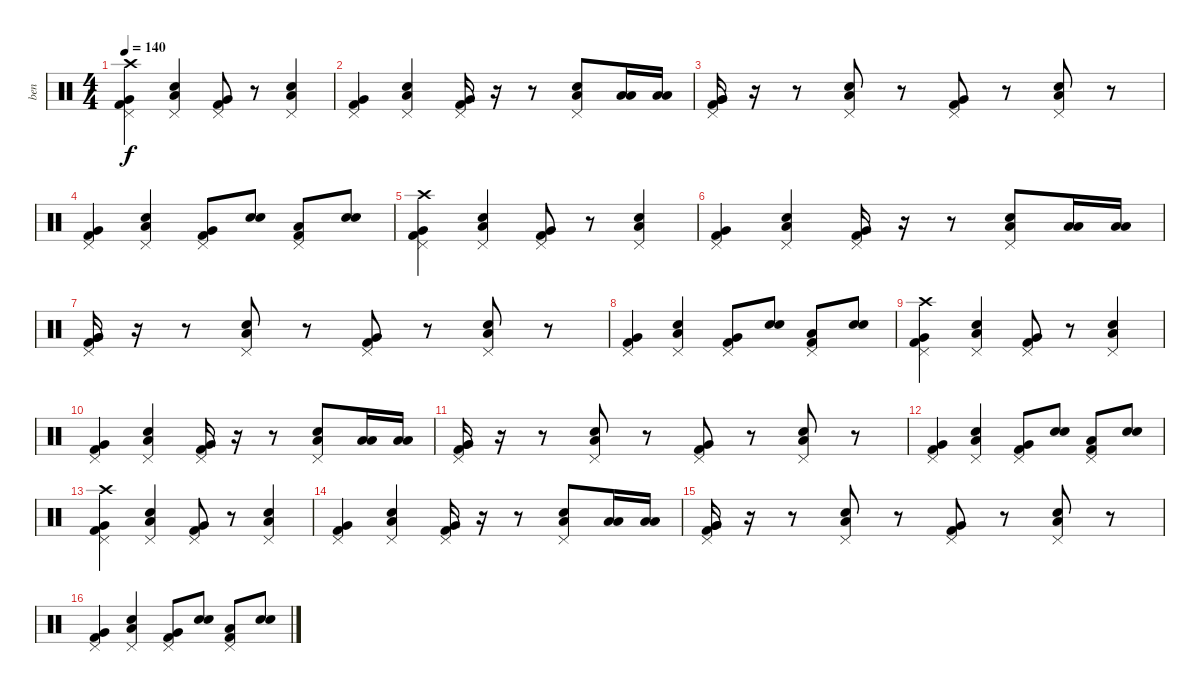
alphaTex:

\track ("ben" "ben") {instrument percussion}
\staff {score}
\articulation defaults
\ts (4 4)
\tempo 140
\clef neutral
\ks c
("Kick (hit) 2" "Very Low Tom (hit)" "Pedal Hi-Hat (hit)" "Crash high (hit)").4{dy f} ("Electric Snare (hit)" "Low Tom (hit)" "Pedal Hi-Hat (hit)").4 ("Kick (hit) 2" "Very Low Tom (hit)" "Pedal Hi-Hat (hit)").8 r.8 ("Electric Snare (hit)" "Low Tom (hit)" "Pedal Hi-Hat (hit)").4 |
("Kick (hit) 2" "Very Low Tom (hit)" "Pedal Hi-Hat (hit)").4 ("Electric Snare (hit)" "Low Tom (hit)" "Pedal Hi-Hat (hit)").4 ("Pedal Hi-Hat (hit)" "Very Low Tom (hit)" "Kick (hit) 2").16 r.16 r.8 ("Pedal Hi-Hat (hit)" "Low Tom (hit)" "Electric Snare (hit)").8 ("Low Tom (hit)" "Low Tom (hit)").16 ("Low Tom (hit)" "Low Tom (hit)").16 |
("Very Low Tom (hit)" "Very Low Tom (hit)" "Pedal Hi-Hat (hit)" "Kick (hit) 2").16 r.16 r.8 ("Electric Snare (hit)" "Low Tom (hit)" "Pedal Hi-Hat (hit)").8 r.8 ("Kick (hit) 2" "Very Low Tom (hit)" "Pedal Hi-Hat (hit)").8 r.8 ("Electric Snare (hit)" "Low Tom (hit)" "Pedal Hi-Hat (hit)").8 r.8 |
("Kick (hit) 2" "Very Low Tom (hit)" "Pedal Hi-Hat (hit)").4 ("Electric Snare (hit)" "Low Tom (hit)" "Pedal Hi-Hat (hit)").4 ("Kick (hit) 2" "Very Low Tom (hit)" "Pedal Hi-Hat (hit)").8 ("Electric Snare (hit)" "Electric Snare (hit)").8 ("Kick (hit) 2" "Low Tom (hit)" "Pedal Hi-Hat (hit)").8 ("Electric Snare (hit)" "Electric Snare (hit)").8 |
("Kick (hit) 2" "Very Low Tom (hit)" "Pedal Hi-Hat (hit)" "Crash high (hit)").4 ("Electric Snare (hit)" "Low Tom (hit)" "Pedal Hi-Hat (hit)").4 ("Kick (hit) 2" "Very Low Tom (hit)" "Pedal Hi-Hat (hit)").8 r.8 ("Electric Snare (hit)" "Low Tom (hit)" "Pedal Hi-Hat (hit)").4 |
("Kick (hit) 2" "Very Low Tom (hit)" "Pedal Hi-Hat (hit)").4 ("Electric Snare (hit)" "Low Tom (hit)" "Pedal Hi-Hat (hit)").4 ("Pedal Hi-Hat (hit)" "Very Low Tom (hit)" "Kick (hit) 2").16 r.16 r.8 ("Pedal Hi-Hat (hit)" "Low Tom (hit)" "Electric Snare (hit)").8 ("Low Tom (hit)" "Low Tom (hit)").16 ("Low Tom (hit)" "Low Tom (hit)").16 |
("Very Low Tom (hit)" "Very Low Tom (hit)" "Pedal Hi-Hat (hit)" "Kick (hit) 2").16 r.16 r.8 ("Electric Snare (hit)" "Low Tom (hit)" "Pedal Hi-Hat (hit)").8 r.8 ("Kick (hit) 2" "Very Low Tom (hit)" "Pedal Hi-Hat (hit)").8 r.8 ("Electric Snare (hit)" "Low Tom (hit)" "Pedal Hi-Hat (hit)").8 r.8 |
("Kick (hit) 2" "Very Low Tom (hit)" "Pedal Hi-Hat (hit)").4 ("Electric Snare (hit)" "Low Tom (hit)" "Pedal Hi-Hat (hit)").4 ("Kick (hit) 2" "Very Low Tom (hit)" "Pedal Hi-Hat (hit)").8 ("Electric Snare (hit)" "Electric Snare (hit)").8 ("Kick (hit) 2" "Low Tom (hit)" "Pedal Hi-Hat (hit)").8 ("Electric Snare (hit)" "Electric Snare (hit)").8 |
("Kick (hit) 2" "Very Low Tom (hit)" "Pedal Hi-Hat (hit)" "Crash high (hit)").4 ("Electric Snare (hit)" "Low Tom (hit)" "Pedal Hi-Hat (hit)").4 ("Kick (hit) 2" "Very Low Tom (hit)" "Pedal Hi-Hat (hit)").8 r.8 ("Electric Snare (hit)" "Low Tom (hit)" "Pedal Hi-Hat (hit)").4 |
("Kick (hit) 2" "Very Low Tom (hit)" "Pedal Hi-Hat (hit)").4 ("Electric Snare (hit)" "Low Tom (hit)" "Pedal Hi-Hat (hit)").4 ("Pedal Hi-Hat (hit)" "Very Low Tom (hit)" "Kick (hit) 2").16 r.16 r.8 ("Pedal Hi-Hat (hit)" "Low Tom (hit)" "Electric Snare (hit)").8 ("Low Tom (hit)" "Low Tom (hit)").16 ("Low Tom (hit)" "Low Tom (hit)").16 |
("Very Low Tom (hit)" "Very Low Tom (hit)" "Pedal Hi-Hat (hit)" "Kick (hit) 2").16 r.16 r.8 ("Electric Snare (hit)" "Low Tom (hit)" "Pedal Hi-Hat (hit)").8 r.8 ("Kick (hit) 2" "Very Low Tom (hit)" "Pedal Hi-Hat (hit)").8 r.8 ("Electric Snare (hit)" "Low Tom (hit)" "Pedal Hi-Hat (hit)").8 r.8 |
("Kick (hit) 2" "Very Low Tom (hit)" "Pedal Hi-Hat (hit)").4 ("Electric Snare (hit)" "Low Tom (hit)" "Pedal Hi-Hat (hit)").4 ("Kick (hit) 2" "Very Low Tom (hit)" "Pedal Hi-Hat (hit)").8 ("Electric Snare (hit)" "Electric Snare (hit)").8 ("Kick (hit) 2" "Low Tom (hit)" "Pedal Hi-Hat (hit)").8 ("Electric Snare (hit)" "Electric Snare (hit)").8 |
("Kick (hit) 2" "Very Low Tom (hit)" "Pedal Hi-Hat (hit)" "Crash high (hit)").4 ("Electric Snare (hit)" "Low Tom (hit)" "Pedal Hi-Hat (hit)").4 ("Kick (hit) 2" "Very Low Tom (hit)" "Pedal Hi-Hat (hit)").8 r.8 ("Electric Snare (hit)" "Low Tom (hit)" "Pedal Hi-Hat (hit)").4 |
("Kick (hit) 2" "Very Low Tom (hit)" "Pedal Hi-Hat (hit)").4 ("Electric Snare (hit)" "Low Tom (hit)" "Pedal Hi-Hat (hit)").4 ("Pedal Hi-Hat (hit)" "Very Low Tom (hit)" "Kick (hit) 2").16 r.16 r.8 ("Pedal Hi-Hat (hit)" "Low Tom (hit)" "Electric Snare (hit)").8 ("Low Tom (hit)" "Low Tom (hit)").16 ("Low Tom (hit)" "Low Tom (hit)").16 |
("Very Low Tom (hit)" "Very Low Tom (hit)" "Pedal Hi-Hat (hit)" "Kick (hit) 2").16 r.16 r.8 ("Electric Snare (hit)" "Low Tom (hit)" "Pedal Hi-Hat (hit)").8 r.8 ("Kick (hit) 2" "Very Low Tom (hit)" "Pedal Hi-Hat (hit)").8 r.8 ("Electric Snare (hit)" "Low Tom (hit)" "Pedal Hi-Hat (hit)").8 r.8 |
("Kick (hit) 2" "Very Low Tom (hit)" "Pedal Hi-Hat (hit)").4 ("Electric Snare (hit)" "Low Tom (hit)" "Pedal Hi-Hat (hit)").4 ("Kick (hit) 2" "Very Low Tom (hit)" "Pedal Hi-Hat (hit)").8 ("Electric Snare (hit)" "Electric Snare (hit)").8 ("Kick (hit) 2" "Low Tom (hit)" "Pedal Hi-Hat (hit)").8 ("Electric Snare (hit)" "Electric Snare (hit)").8
